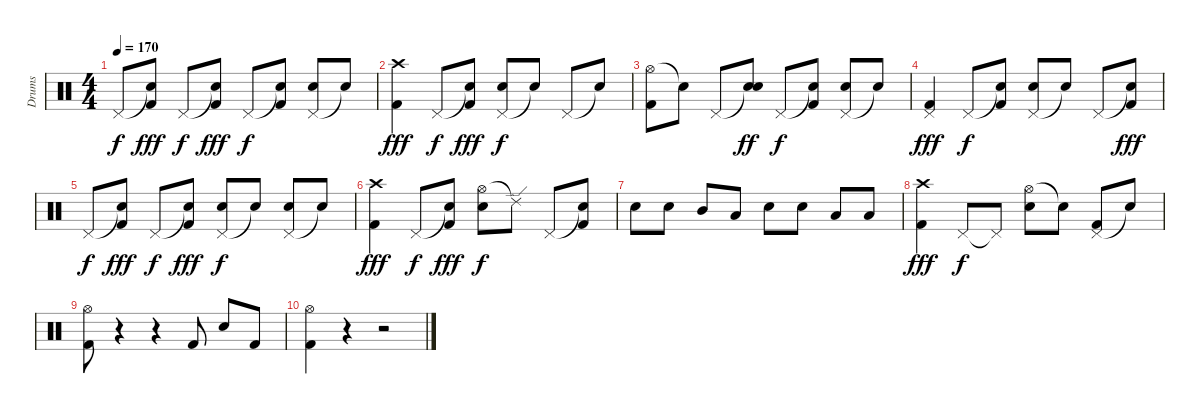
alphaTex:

\track ("Drums" "Drums") {instrument percussion}
\staff {score}
\articulation defaults
\ts (4 4)
\tempo 170
\clef neutral
\ks c "Pedal Hi-Hat (hit)".8{dy f}
("Snare (hit)"{t} "Kick (hit) 2").8{dy fff} "Pedal Hi-Hat (hit)".8{dy f} ("Snare (hit)"{t} "Kick (hit) 2").8{dy fff} "Pedal Hi-Hat (hit)".8{dy f} ("Snare (hit)"{t} "Kick (hit) 2").8 ("Pedal Hi-Hat (hit)" "Electric Snare (hit)").8 "Snare (hit)"{t}.8 |
("Crash high (hit)" "Kick (hit) 2").4{dy fff} "Pedal Hi-Hat (hit)".8{dy f} ("Snare (hit)"{t} "Kick (hit) 2").8{dy fff} ("Pedal Hi-Hat (hit)" "Electric Snare (hit)").8{dy f} "Snare (hit)"{t}.8 "Pedal Hi-Hat (hit)".8 "Snare (hit)"{t}.8 |
("Hi-Hat (open)" "Kick (hit) 2").8 "Snare (hit)"{t}.8 "Pedal Hi-Hat (hit)".8 ("Snare (hit)"{t} "Electric Snare (hit)").8{dy ff} "Pedal Hi-Hat (hit)".8{dy f} ("Snare (hit)"{t} "Kick (hit) 2").8 ("Pedal Hi-Hat (hit)" "Electric Snare (hit)").8 "Snare (hit)"{t}.8 |
("Pedal Hi-Hat (hit)" "Kick (hit) 2").4{dy fff} "Pedal Hi-Hat (hit)".8{dy f} ("Snare (hit)"{t} "Kick (hit) 2").8 ("Pedal Hi-Hat (hit)" "Electric Snare (hit)").8 "Snare (hit)"{t}.8 "Pedal Hi-Hat (hit)".8 ("Snare (hit)"{t} "Kick (hit) 2").8{dy fff} |
"Pedal Hi-Hat (hit)".8{dy f} ("Snare (hit)"{t} "Kick (hit) 2").8{dy fff} "Pedal Hi-Hat (hit)".8{dy f} ("Snare (hit)"{t} "Kick (hit) 2").8{dy fff} ("Pedal Hi-Hat (hit)" "Electric Snare (hit)").8{dy f} "Snare (hit)"{t}.8 ("Pedal Hi-Hat (hit)" "Electric Snare (hit)").8 "Snare (hit)"{t}.8 |
("Crash high (hit)" "Kick (hit) 2").4{dy fff} "Pedal Hi-Hat (hit)".8{dy f} ("Snare (hit)"{t} "Kick (hit) 2").8{dy fff} ("Hi-Hat (open)" "Electric Snare (hit)").8{dy f} "Ride (edge) 2"{t}.8 "Pedal Hi-Hat (hit)".8 ("Snare (hit)"{t} "Kick (hit) 2").8 |
"Electric Snare (hit)".8 "Electric Snare (hit)".8 "Mid Tom (hit)".8 "Low Tom (hit)".8 "Electric Snare (hit)".8 "Electric Snare (hit)".8 "Low Tom (hit)".8 "Low Tom (hit)".8 |
("Crash high (hit)" "Kick (hit) 2").4{dy fff} "Pedal Hi-Hat (hit)".8{dy f} "Pedal Hi-Hat (hit)"{t}.8 ("Hi-Hat (open)" "Electric Snare (hit)").8 "Snare (hit)"{t}.8 ("Pedal Hi-Hat (hit)" "Kick (hit) 2").8 "Snare (hit)"{t}.8 |
("Hi-Hat (open)" "Kick (hit) 2").8 r.4 r.4 "Kick (hit) 2".8 "Electric Snare (hit)".8 "Kick (hit) 2".8 |
("Hi-Hat (open)" "Kick (hit) 2").4 r.4 r.2
